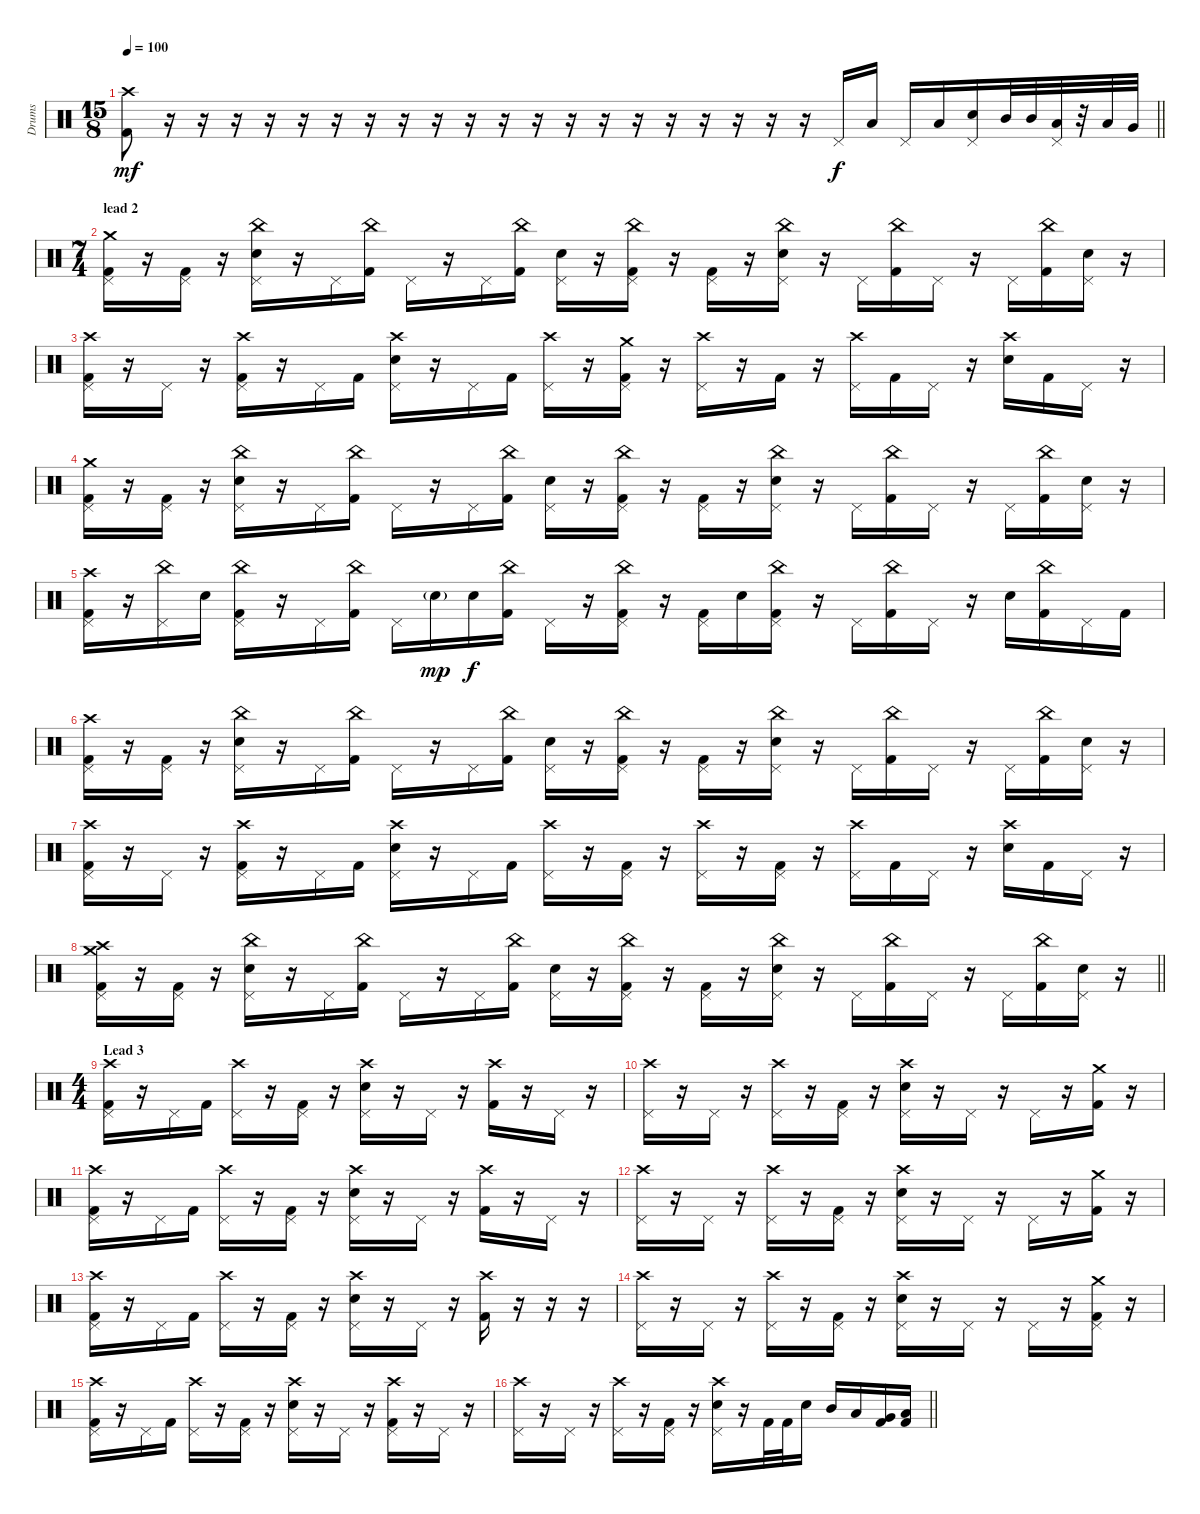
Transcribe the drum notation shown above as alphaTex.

\track ("Drums" "Drums") {instrument percussion}
\staff {score}
\articulation defaults
\ts (15 8)
\tempo 100
\clef neutral
\barLineRight lightlight
\ks c
("Crash high (hit)" "Kick (hit) 2").8{dy mf} r.16 r.16 r.16 r.16 r.16 r.16 r.16 r.16 r.16 r.16 r.16 r.16 r.16 r.16 r.16 r.16 r.16 r.16 r.16 r.16 "Pedal Hi-Hat (hit)".16{dy f} "Low Tom (hit)".16 "Pedal Hi-Hat (hit)".16 "Low Tom (hit)".16 ("Electric Snare (hit)" "Pedal Hi-Hat (hit)").16 "Mid Tom (hit)".32 "Mid Tom (hit)".32 ("Low Tom (hit)" "Pedal Hi-Hat (hit)").32 r.32 "Low Tom (hit)".32 "Very Low Tom (hit)".32 |
\ts (7 4)
\section ("" "lead 2")
("Crash medium (hit)" "Pedal Hi-Hat (hit)" "Kick (hit) 2").16 r.16 ("Pedal Hi-Hat (hit)" "Kick (hit) 2").16 r.16 ("China (hit)" "Electric Snare (hit)" "Pedal Hi-Hat (hit)").16 r.16 "Pedal Hi-Hat (hit)".16 ("China (hit)" "Kick (hit) 2").16 "Pedal Hi-Hat (hit)".16 r.16 "Pedal Hi-Hat (hit)".16 ("China (hit)" "Kick (hit) 2").16 ("Electric Snare (hit)" "Pedal Hi-Hat (hit)").16 r.16 ("China (hit)" "Pedal Hi-Hat (hit)" "Kick (hit) 2").16 r.16 ("Pedal Hi-Hat (hit)" "Kick (hit) 2").16 r.16 ("China (hit)" "Electric Snare (hit)" "Pedal Hi-Hat (hit)").16 r.16 "Pedal Hi-Hat (hit)".16 ("China (hit)" "Kick (hit) 2").16 "Pedal Hi-Hat (hit)".16 r.16 "Pedal Hi-Hat (hit)".16 ("China (hit)" "Kick (hit) 2").16 ("Electric Snare (hit)" "Pedal Hi-Hat (hit)").16 r.16 |
("Crash high (hit)" "Pedal Hi-Hat (hit)" "Kick (hit) 2").16 r.16 "Pedal Hi-Hat (hit)".16 r.16 ("Crash high (hit)" "Pedal Hi-Hat (hit)" "Kick (hit) 2").16 r.16 "Pedal Hi-Hat (hit)".16 "Kick (hit) 2".16 ("Crash high (hit)" "Electric Snare (hit)" "Pedal Hi-Hat (hit)").16 r.16 "Pedal Hi-Hat (hit)".16 "Kick (hit) 2".16 ("Crash high (hit)" "Pedal Hi-Hat (hit)").16 r.16 ("Crash medium (hit)" "Pedal Hi-Hat (hit)" "Kick (hit) 2").16 r.16 ("Crash high (hit)" "Pedal Hi-Hat (hit)").16 r.16 "Kick (hit) 2".16 r.16 ("Crash high (hit)" "Pedal Hi-Hat (hit)").16 "Kick (hit) 2".16 "Pedal Hi-Hat (hit)".16 r.16 ("Crash high (hit)" "Electric Snare (hit)").16 "Kick (hit) 2".16 "Pedal Hi-Hat (hit)".16 r.16 |
("Crash medium (hit)" "Pedal Hi-Hat (hit)" "Kick (hit) 2").16 r.16 ("Pedal Hi-Hat (hit)" "Kick (hit) 2").16 r.16 ("China (hit)" "Electric Snare (hit)" "Pedal Hi-Hat (hit)").16 r.16 "Pedal Hi-Hat (hit)".16 ("China (hit)" "Kick (hit) 2").16 "Pedal Hi-Hat (hit)".16 r.16 "Pedal Hi-Hat (hit)".16 ("China (hit)" "Kick (hit) 2").16 ("Electric Snare (hit)" "Pedal Hi-Hat (hit)").16 r.16 ("China (hit)" "Pedal Hi-Hat (hit)" "Kick (hit) 2").16 r.16 ("Pedal Hi-Hat (hit)" "Kick (hit) 2").16 r.16 ("China (hit)" "Electric Snare (hit)" "Pedal Hi-Hat (hit)").16 r.16 "Pedal Hi-Hat (hit)".16 ("China (hit)" "Kick (hit) 2").16 "Pedal Hi-Hat (hit)".16 r.16 "Pedal Hi-Hat (hit)".16 ("China (hit)" "Kick (hit) 2").16 ("Electric Snare (hit)" "Pedal Hi-Hat (hit)").16 r.16 |
("Crash high (hit)" "Pedal Hi-Hat (hit)" "Kick (hit) 2").16 r.16 ("China (hit)" "Pedal Hi-Hat (hit)").16 "Electric Snare (hit)".16 ("China (hit)" "Pedal Hi-Hat (hit)" "Kick (hit) 2").16 r.16 "Pedal Hi-Hat (hit)".16 ("China (hit)" "Kick (hit) 2").16 "Pedal Hi-Hat (hit)".16 "Electric Snare (hit)"{g}.16{dy mp} "Electric Snare (hit)".16{dy f} ("China (hit)" "Kick (hit) 2").16 "Pedal Hi-Hat (hit)".16 r.16 ("China (hit)" "Pedal Hi-Hat (hit)" "Kick (hit) 2").16 r.16 ("Pedal Hi-Hat (hit)" "Kick (hit) 2").16 "Electric Snare (hit)".16 ("China (hit)" "Pedal Hi-Hat (hit)" "Kick (hit) 2").16 r.16 "Pedal Hi-Hat (hit)".16 ("China (hit)" "Kick (hit) 2").16 "Pedal Hi-Hat (hit)".16 r.16 "Electric Snare (hit)".16 ("China (hit)" "Kick (hit) 2").16 "Pedal Hi-Hat (hit)".16 "Kick (hit) 2".16 |
("Crash high (hit)" "Pedal Hi-Hat (hit)" "Kick (hit) 2").16 r.16 ("Pedal Hi-Hat (hit)" "Kick (hit) 2").16 r.16 ("China (hit)" "Electric Snare (hit)" "Pedal Hi-Hat (hit)").16 r.16 "Pedal Hi-Hat (hit)".16 ("China (hit)" "Kick (hit) 2").16 "Pedal Hi-Hat (hit)".16 r.16 "Pedal Hi-Hat (hit)".16 ("China (hit)" "Kick (hit) 2").16 ("Electric Snare (hit)" "Pedal Hi-Hat (hit)").16 r.16 ("China (hit)" "Pedal Hi-Hat (hit)" "Kick (hit) 2").16 r.16 ("Pedal Hi-Hat (hit)" "Kick (hit) 2").16 r.16 ("China (hit)" "Electric Snare (hit)" "Pedal Hi-Hat (hit)").16 r.16 "Pedal Hi-Hat (hit)".16 ("China (hit)" "Kick (hit) 2").16 "Pedal Hi-Hat (hit)".16 r.16 "Pedal Hi-Hat (hit)".16 ("China (hit)" "Kick (hit) 2").16 ("Electric Snare (hit)" "Pedal Hi-Hat (hit)").16 r.16 |
("Crash high (hit)" "Pedal Hi-Hat (hit)" "Kick (hit) 2").16 r.16 "Pedal Hi-Hat (hit)".16 r.16 ("Crash high (hit)" "Pedal Hi-Hat (hit)" "Kick (hit) 2").16 r.16 "Pedal Hi-Hat (hit)".16 "Kick (hit) 2".16 ("Crash high (hit)" "Electric Snare (hit)" "Pedal Hi-Hat (hit)").16 r.16 "Pedal Hi-Hat (hit)".16 "Kick (hit) 2".16 ("Crash high (hit)" "Pedal Hi-Hat (hit)").16 r.16 ("Pedal Hi-Hat (hit)" "Kick (hit) 2").16 r.16 ("Crash high (hit)" "Pedal Hi-Hat (hit)").16 r.16 ("Pedal Hi-Hat (hit)" "Kick (hit) 2").16 r.16 ("Crash high (hit)" "Pedal Hi-Hat (hit)").16 "Kick (hit) 2".16 "Pedal Hi-Hat (hit)".16 r.16 ("Crash high (hit)" "Electric Snare (hit)").16 "Kick (hit) 2".16 "Pedal Hi-Hat (hit)".16 r.16 |
\barLineRight lightlight
("Crash high (hit)" "Crash medium (hit)" "Pedal Hi-Hat (hit)" "Kick (hit) 2").16 r.16 ("Pedal Hi-Hat (hit)" "Kick (hit) 2").16 r.16 ("China (hit)" "Electric Snare (hit)" "Pedal Hi-Hat (hit)").16 r.16 "Pedal Hi-Hat (hit)".16 ("China (hit)" "Kick (hit) 2").16 "Pedal Hi-Hat (hit)".16 r.16 "Pedal Hi-Hat (hit)".16 ("China (hit)" "Kick (hit) 2").16 ("Electric Snare (hit)" "Pedal Hi-Hat (hit)").16 r.16 ("China (hit)" "Pedal Hi-Hat (hit)" "Kick (hit) 2").16 r.16 ("Pedal Hi-Hat (hit)" "Kick (hit) 2").16 r.16 ("China (hit)" "Electric Snare (hit)" "Pedal Hi-Hat (hit)").16 r.16 "Pedal Hi-Hat (hit)".16 ("China (hit)" "Kick (hit) 2").16 "Pedal Hi-Hat (hit)".16 r.16 "Pedal Hi-Hat (hit)".16 ("China (hit)" "Kick (hit) 2").16 ("Electric Snare (hit)" "Pedal Hi-Hat (hit)").16 r.16 |
\ts (4 4)
\section ("" "Lead 3")
("Crash high (hit)" "Pedal Hi-Hat (hit)" "Kick (hit) 2").16 r.16 "Pedal Hi-Hat (hit)".16 "Kick (hit) 2".16 ("Crash high (hit)" "Pedal Hi-Hat (hit)").16 r.16 ("Pedal Hi-Hat (hit)" "Kick (hit) 2").16 r.16 ("Crash high (hit)" "Electric Snare (hit)" "Pedal Hi-Hat (hit)").16 r.16 "Pedal Hi-Hat (hit)".16 r.16 ("Crash high (hit)" "Kick (hit) 2").16 r.16 "Pedal Hi-Hat (hit)".16 r.16 |
("Crash high (hit)" "Pedal Hi-Hat (hit)").16 r.16 "Pedal Hi-Hat (hit)".16 r.16 ("Crash high (hit)" "Pedal Hi-Hat (hit)").16 r.16 ("Pedal Hi-Hat (hit)" "Kick (hit) 2").16 r.16 ("Crash high (hit)" "Electric Snare (hit)" "Pedal Hi-Hat (hit)").16 r.16 "Pedal Hi-Hat (hit)".16 r.16 "Pedal Hi-Hat (hit)".16 r.16 ("Crash medium (hit)" "Kick (hit) 2").16 r.16 |
("Crash high (hit)" "Pedal Hi-Hat (hit)" "Kick (hit) 2").16 r.16 "Pedal Hi-Hat (hit)".16 "Kick (hit) 2".16 ("Crash high (hit)" "Pedal Hi-Hat (hit)").16 r.16 ("Pedal Hi-Hat (hit)" "Kick (hit) 2").16 r.16 ("Crash high (hit)" "Electric Snare (hit)" "Pedal Hi-Hat (hit)").16 r.16 "Pedal Hi-Hat (hit)".16 r.16 ("Crash high (hit)" "Kick (hit) 2").16 r.16 "Pedal Hi-Hat (hit)".16 r.16 |
("Crash high (hit)" "Pedal Hi-Hat (hit)").16 r.16 "Pedal Hi-Hat (hit)".16 r.16 ("Crash high (hit)" "Pedal Hi-Hat (hit)").16 r.16 ("Pedal Hi-Hat (hit)" "Kick (hit) 2").16 r.16 ("Crash high (hit)" "Electric Snare (hit)" "Pedal Hi-Hat (hit)").16 r.16 "Pedal Hi-Hat (hit)".16 r.16 "Pedal Hi-Hat (hit)".16 r.16 ("Crash medium (hit)" "Kick (hit) 2").16 r.16 |
("Crash high (hit)" "Pedal Hi-Hat (hit)" "Kick (hit) 2").16 r.16 "Pedal Hi-Hat (hit)".16 "Kick (hit) 2".16 ("Crash high (hit)" "Pedal Hi-Hat (hit)").16 r.16 ("Pedal Hi-Hat (hit)" "Kick (hit) 2").16 r.16 ("Crash high (hit)" "Electric Snare (hit)" "Pedal Hi-Hat (hit)").16 r.16 "Pedal Hi-Hat (hit)".16 r.16 ("Crash high (hit)" "Kick (hit) 2").16 r.16 r.16 r.16 |
("Crash high (hit)" "Pedal Hi-Hat (hit)").16 r.16 "Pedal Hi-Hat (hit)".16 r.16 ("Crash high (hit)" "Pedal Hi-Hat (hit)").16 r.16 ("Pedal Hi-Hat (hit)" "Kick (hit) 2").16 r.16 ("Crash high (hit)" "Electric Snare (hit)" "Pedal Hi-Hat (hit)").16 r.16 "Pedal Hi-Hat (hit)".16 r.16 "Pedal Hi-Hat (hit)".16 r.16 ("Crash medium (hit)" "Pedal Hi-Hat (hit)" "Kick (hit) 2").16 r.16 |
("Crash high (hit)" "Pedal Hi-Hat (hit)" "Kick (hit) 2").16 r.16 "Pedal Hi-Hat (hit)".16 "Kick (hit) 2".16 ("Crash high (hit)" "Pedal Hi-Hat (hit)").16 r.16 ("Pedal Hi-Hat (hit)" "Kick (hit) 2").16 r.16 ("Crash high (hit)" "Electric Snare (hit)" "Pedal Hi-Hat (hit)").16 r.16 "Pedal Hi-Hat (hit)".16 r.16 ("Crash high (hit)" "Pedal Hi-Hat (hit)" "Kick (hit) 2").16 r.16 "Pedal Hi-Hat (hit)".16 r.16 |
\barLineRight lightlight
("Crash high (hit)" "Pedal Hi-Hat (hit)").16 r.16 "Pedal Hi-Hat (hit)".16 r.16 ("Crash high (hit)" "Pedal Hi-Hat (hit)").16 r.16 ("Pedal Hi-Hat (hit)" "Kick (hit) 2").16 r.16 ("Crash high (hit)" "Electric Snare (hit)" "Pedal Hi-Hat (hit)").16 r.16 "Kick (hit) 2".32 "Kick (hit) 2".32 "Electric Snare (hit)".16 "Mid Tom (hit)".16 "Low Tom (hit)".16 ("Very Low Tom (hit)" "Kick (hit) 2").16 ("Low Floor Tom (hit)" "Kick (hit) 2").16
